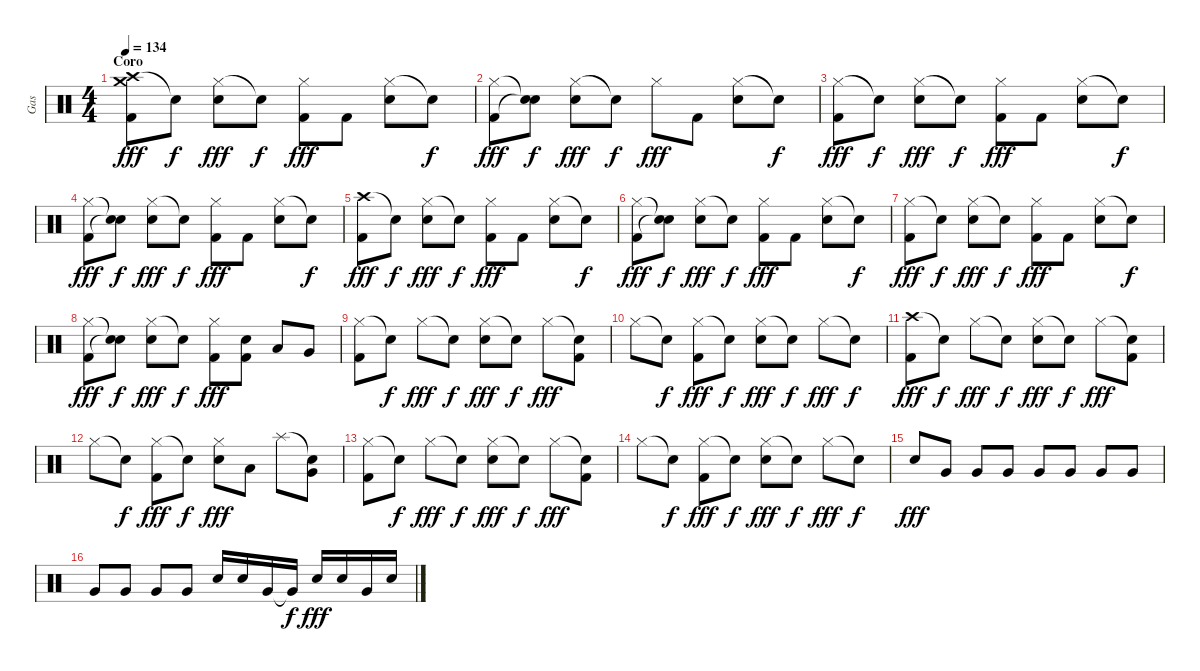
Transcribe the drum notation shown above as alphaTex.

\track ("Gas" "Gas") {instrument percussion}
\staff {score}
\articulation defaults
\ts (4 4)
\section ("" "Coro")
\tempo 134
\clef neutral
\ks c
("Crash high (hit)" "Crash medium (hit)" "Kick (hit) 2").8{dy fff} "Snare (hit)"{t}.8{dy f} ("Hi-Hat (closed)" "Snare (hit) 2").8{dy fff} "Snare (hit)"{t}.8{dy f} ("Hi-Hat (closed)" "Kick (hit) 2").8{dy fff} "Kick (hit) 2".8 ("Hi-Hat (closed)" "Snare (hit) 2").8 "Snare (hit)"{t}.8{dy f} |
("Hi-Hat (closed)" "Kick (hit) 2").8{dy fff} ("Snare (hit)"{t} "Snare (hit)"{t}).8{dy f} ("Hi-Hat (closed)" "Snare (hit) 2").8{dy fff} "Snare (hit)"{t}.8{dy f} "Hi-Hat (closed)".8{dy fff} "Kick (hit) 2".8 ("Hi-Hat (closed)" "Snare (hit) 2").8 "Snare (hit)"{t}.8{dy f} |
("Hi-Hat (closed)" "Kick (hit) 2").8{dy fff} "Snare (hit)"{t}.8{dy f} ("Hi-Hat (closed)" "Snare (hit) 2").8{dy fff} "Snare (hit)"{t}.8{dy f} ("Hi-Hat (closed)" "Kick (hit) 2").8{dy fff} "Kick (hit) 2".8 ("Hi-Hat (closed)" "Snare (hit) 2").8 "Snare (hit)"{t}.8{dy f} |
("Hi-Hat (closed)" "Kick (hit) 2").8{dy fff} ("Snare (hit)"{t} "Snare (hit)"{t}).8{dy f} ("Hi-Hat (closed)" "Snare (hit) 2").8{dy fff} "Snare (hit)"{t}.8{dy f} ("Hi-Hat (closed)" "Kick (hit) 2").8{dy fff} "Kick (hit) 2".8 ("Hi-Hat (closed)" "Snare (hit) 2").8 "Snare (hit)"{t}.8{dy f} |
("Crash high (hit)" "Kick (hit) 2").8{dy fff} "Snare (hit)"{t}.8{dy f} ("Hi-Hat (closed)" "Snare (hit) 2").8{dy fff} "Snare (hit)"{t}.8{dy f} ("Hi-Hat (closed)" "Kick (hit) 2").8{dy fff} "Kick (hit) 2".8 ("Hi-Hat (closed)" "Snare (hit) 2").8 "Snare (hit)"{t}.8{dy f} |
("Hi-Hat (closed)" "Kick (hit) 2").8{dy fff} ("Snare (hit)"{t} "Snare (hit)"{t}).8{dy f} ("Hi-Hat (closed)" "Snare (hit) 2").8{dy fff} "Snare (hit)"{t}.8{dy f} ("Hi-Hat (closed)" "Kick (hit) 2").8{dy fff} "Kick (hit) 2".8 ("Hi-Hat (closed)" "Snare (hit) 2").8 "Snare (hit)"{t}.8{dy f} |
("Hi-Hat (closed)" "Kick (hit) 2").8{dy fff} "Snare (hit)"{t}.8{dy f} ("Hi-Hat (closed)" "Snare (hit) 2").8{dy fff} "Snare (hit)"{t}.8{dy f} ("Hi-Hat (closed)" "Kick (hit) 2").8{dy fff} "Kick (hit) 2".8 ("Hi-Hat (closed)" "Snare (hit) 2").8 "Snare (hit)"{t}.8{dy f} |
("Hi-Hat (closed)" "Kick (hit) 2").8{dy fff} ("Snare (hit)"{t} "Snare (hit)"{t}).8{dy f} ("Hi-Hat (closed)" "Snare (hit) 2").8{dy fff} "Snare (hit)"{t}.8{dy f} ("Hi-Hat (closed)" "Kick (hit) 2").8{dy fff} ("Snare (hit) 2" "Kick (hit) 2").8 "Low Tom (hit)".8 "Very Low Tom (hit)".8 |
("Hi-Hat (closed)" "Kick (hit) 2").8 "Snare (hit)"{t}.8{dy f} "Hi-Hat (closed)".8{dy fff} "Snare (hit)"{t}.8{dy f} ("Hi-Hat (closed)" "Snare (hit) 2").8{dy fff} "Snare (hit)"{t}.8{dy f} "Hi-Hat (closed)".8{dy fff} ("Snare (hit)"{t} "Kick (hit) 2").8 |
"Hi-Hat (closed)".8 "Snare (hit)"{t}.8{dy f} ("Hi-Hat (closed)" "Kick (hit) 2").8{dy fff} "Snare (hit)"{t}.8{dy f} ("Hi-Hat (closed)" "Snare (hit) 2").8{dy fff} "Snare (hit)"{t}.8{dy f} "Hi-Hat (closed)".8{dy fff} "Snare (hit)"{t}.8{dy f} |
("Crash high (hit)" "Kick (hit) 2").8{dy fff} "Snare (hit)"{t}.8{dy f} "Hi-Hat (closed)".8{dy fff} "Snare (hit)"{t}.8{dy f} ("Hi-Hat (closed)" "Snare (hit) 2").8{dy fff} "Snare (hit)"{t}.8{dy f} "Hi-Hat (closed)".8{dy fff} ("Snare (hit)"{t} "Kick (hit) 2").8 |
"Hi-Hat (closed)".8 "Snare (hit)"{t}.8{dy f} ("Hi-Hat (closed)" "Kick (hit) 2").8{dy fff} "Snare (hit)"{t}.8{dy f} ("Hi-Hat (closed)" "Snare (hit) 2").8{dy fff} "Low Tom (hit)".8 "Splash (hit)".8 ("Snare (hit)"{t} "Very Low Tom (hit)").8 |
("Hi-Hat (closed)" "Kick (hit) 2").8 "Snare (hit)"{t}.8{dy f} "Hi-Hat (closed)".8{dy fff} "Snare (hit)"{t}.8{dy f} ("Hi-Hat (closed)" "Snare (hit) 2").8{dy fff} "Snare (hit)"{t}.8{dy f} "Hi-Hat (closed)".8{dy fff} ("Snare (hit)"{t} "Kick (hit) 2").8 |
"Hi-Hat (closed)".8 "Snare (hit)"{t}.8{dy f} ("Hi-Hat (closed)" "Kick (hit) 2").8{dy fff} "Snare (hit)"{t}.8{dy f} ("Hi-Hat (closed)" "Snare (hit) 2").8{dy fff} "Snare (hit)"{t}.8{dy f} "Hi-Hat (closed)".8{dy fff} "Snare (hit)"{t}.8{dy f} |
"Snare (hit) 2".8{dy fff} "Very Low Tom (hit)".8 "Very Low Tom (hit)".8 "Very Low Tom (hit)".8 "Very Low Tom (hit)".8 "Very Low Tom (hit)".8 "Very Low Tom (hit)".8 "Very Low Tom (hit)".8 |
"Very Low Tom (hit)".8 "Very Low Tom (hit)".8 "Very Low Tom (hit)".8 "Very Low Tom (hit)".8 "Snare (hit) 2".16 "Snare (hit) 2".16 "Very Low Tom (hit)".16 "Very Low Tom (hit)"{t}.16{dy f} "Snare (hit) 2".16{dy fff} "Snare (hit) 2".16 "Very Low Tom (hit)".16 "Snare (hit) 2".16
